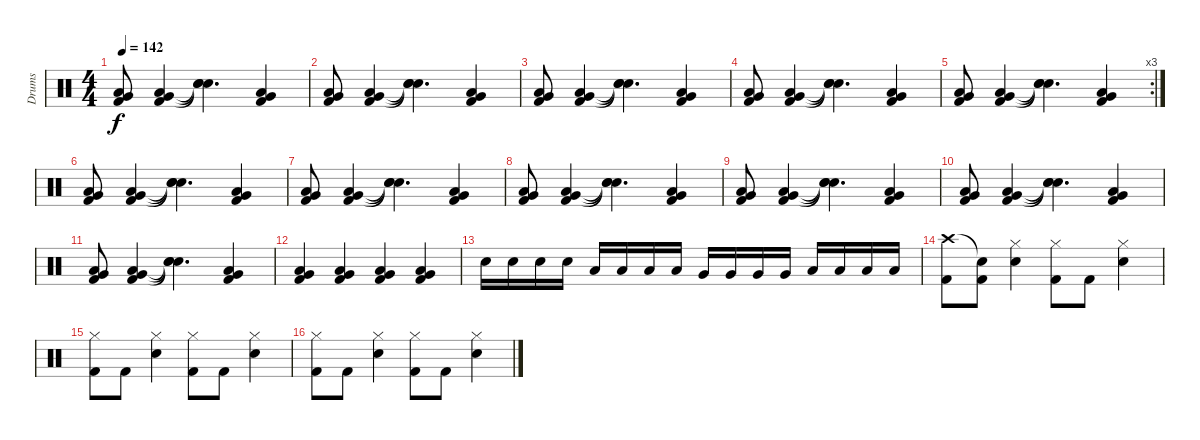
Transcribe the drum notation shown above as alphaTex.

\track ("Drums" "Drums") {instrument percussion}
\staff {score}
\articulation defaults
\ts (4 4)
\tempo 142
\clef neutral
\ks c
("Low Tom (hit)" "Very Low Tom (hit)" "Kick (hit) 2").8{dy f} ("Low Tom (hit)" "Very Low Tom (hit)" "Kick (hit) 2").4 ("Snare (hit)"{t} "Snare (hit)"{t} "Snare (hit)"{t}).4{d} ("Low Tom (hit)" "Very Low Tom (hit)" "Kick (hit) 2").4 |
("Low Tom (hit)" "Very Low Tom (hit)" "Kick (hit) 2").8 ("Low Tom (hit)" "Very Low Tom (hit)" "Kick (hit) 2").4 ("Snare (hit)"{t} "Snare (hit)"{t} "Snare (hit)"{t}).4{d} ("Low Tom (hit)" "Very Low Tom (hit)" "Kick (hit) 2").4 |
("Low Tom (hit)" "Very Low Tom (hit)" "Kick (hit) 2").8 ("Low Tom (hit)" "Very Low Tom (hit)" "Kick (hit) 2").4 ("Snare (hit)"{t} "Snare (hit)"{t} "Snare (hit)"{t}).4{d} ("Low Tom (hit)" "Very Low Tom (hit)" "Kick (hit) 2").4 |
("Low Tom (hit)" "Very Low Tom (hit)" "Kick (hit) 2").8 ("Low Tom (hit)" "Very Low Tom (hit)" "Kick (hit) 2").4 ("Snare (hit)"{t} "Snare (hit)"{t} "Snare (hit)"{t}).4{d} ("Low Tom (hit)" "Very Low Tom (hit)" "Kick (hit) 2").4 |
\rc 3
("Low Tom (hit)" "Very Low Tom (hit)" "Kick (hit) 2").8 ("Low Tom (hit)" "Very Low Tom (hit)" "Kick (hit) 2").4 ("Snare (hit)"{t} "Snare (hit)"{t} "Snare (hit)"{t}).4{d} ("Low Tom (hit)" "Very Low Tom (hit)" "Kick (hit) 2").4 |
("Low Tom (hit)" "Very Low Tom (hit)" "Kick (hit) 2").8 ("Low Tom (hit)" "Very Low Tom (hit)" "Kick (hit) 2").4 ("Snare (hit)"{t} "Snare (hit)"{t} "Snare (hit)"{t}).4{d} ("Low Tom (hit)" "Very Low Tom (hit)" "Kick (hit) 2").4 |
("Low Tom (hit)" "Very Low Tom (hit)" "Kick (hit) 2").8 ("Low Tom (hit)" "Very Low Tom (hit)" "Kick (hit) 2").4 ("Snare (hit)"{t} "Snare (hit)"{t} "Snare (hit)"{t}).4{d} ("Low Tom (hit)" "Very Low Tom (hit)" "Kick (hit) 2").4 |
("Low Tom (hit)" "Very Low Tom (hit)" "Kick (hit) 2").8 ("Low Tom (hit)" "Very Low Tom (hit)" "Kick (hit) 2").4 ("Snare (hit)"{t} "Snare (hit)"{t} "Snare (hit)"{t}).4{d} ("Low Tom (hit)" "Very Low Tom (hit)" "Kick (hit) 2").4 |
("Low Tom (hit)" "Very Low Tom (hit)" "Kick (hit) 2").8 ("Low Tom (hit)" "Very Low Tom (hit)" "Kick (hit) 2").4 ("Snare (hit)"{t} "Snare (hit)"{t} "Snare (hit)"{t}).4{d} ("Low Tom (hit)" "Very Low Tom (hit)" "Kick (hit) 2").4 |
("Low Tom (hit)" "Very Low Tom (hit)" "Kick (hit) 2").8 ("Low Tom (hit)" "Very Low Tom (hit)" "Kick (hit) 2").4 ("Snare (hit)"{t} "Snare (hit)"{t} "Snare (hit)"{t}).4{d} ("Low Tom (hit)" "Very Low Tom (hit)" "Kick (hit) 2").4 |
("Low Tom (hit)" "Very Low Tom (hit)" "Kick (hit) 2").8 ("Low Tom (hit)" "Very Low Tom (hit)" "Kick (hit) 2").4 ("Snare (hit)"{t} "Snare (hit)"{t} "Snare (hit)"{t}).4{d} ("Low Tom (hit)" "Very Low Tom (hit)" "Kick (hit) 2").4 |
("Low Tom (hit)" "Very Low Tom (hit)" "Kick (hit) 2").4 ("Low Tom (hit)" "Very Low Tom (hit)" "Kick (hit) 2").4 ("Low Tom (hit)" "Very Low Tom (hit)" "Kick (hit) 2").4 ("Low Tom (hit)" "Very Low Tom (hit)" "Kick (hit) 2").4 |
"Snare (hit) 2".16{volume 12} "Snare (hit) 2".16 "Snare (hit) 2".16 "Snare (hit) 2".16 "Low Tom (hit)".16 "Low Tom (hit)".16 "Low Tom (hit)".16 "Low Tom (hit)".16 "Very Low Tom (hit)".16 "Very Low Tom (hit)".16 "Very Low Tom (hit)".16 "Very Low Tom (hit)".16 "Low Floor Tom (hit)".16 "Low Floor Tom (hit)".16 "Low Floor Tom (hit)".16 "Low Floor Tom (hit)".16 |
("Crash high (hit)" "Kick (hit) 2").8 ("Snare (hit)"{t} "Kick (hit) 2").8 ("Hi-Hat (closed)" "Snare (hit) 2").4 ("Hi-Hat (closed)" "Kick (hit) 2").8 "Kick (hit) 2".8 ("Hi-Hat (closed)" "Snare (hit) 2").4 |
("Hi-Hat (closed)" "Kick (hit) 2").8 "Kick (hit) 2".8 ("Hi-Hat (closed)" "Snare (hit) 2").4 ("Hi-Hat (closed)" "Kick (hit) 2").8 "Kick (hit) 2".8 ("Hi-Hat (closed)" "Snare (hit) 2").4 |
("Hi-Hat (closed)" "Kick (hit) 2").8 "Kick (hit) 2".8 ("Hi-Hat (closed)" "Snare (hit) 2").4 ("Hi-Hat (closed)" "Kick (hit) 2").8 "Kick (hit) 2".8 ("Hi-Hat (closed)" "Snare (hit) 2").4
